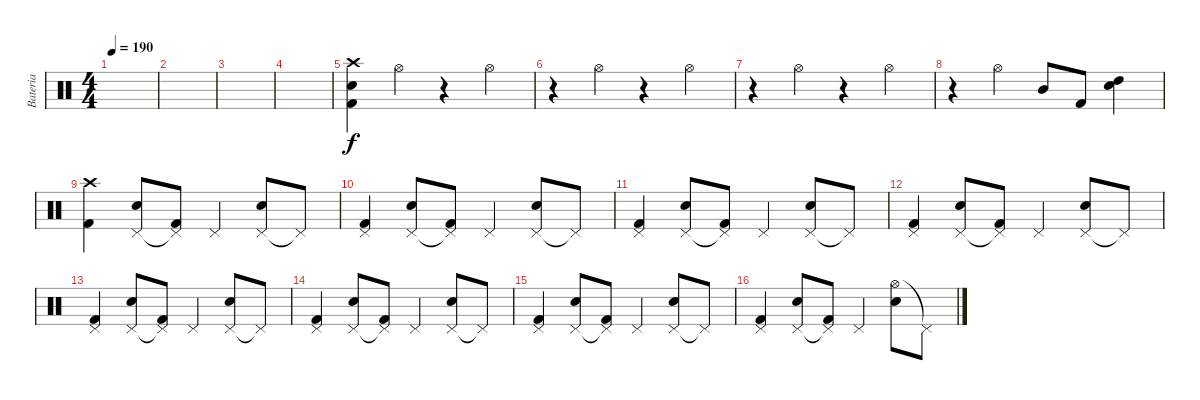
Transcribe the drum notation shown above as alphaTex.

\track ("Bateria" "Bateria") {instrument percussion}
\staff {score}
\articulation defaults
\ts (4 4)
\tempo 190
\clef neutral
\ks c
|
|
|
|
("Crash high (hit)" "Electric Snare (hit)" "Kick (hit) 2").4 "Hi-Hat (open)".4 r.4 "Hi-Hat (open)".4 |
r.4 "Hi-Hat (open)".4 r.4 "Hi-Hat (open)".4 |
r.4 "Hi-Hat (open)".4 r.4 "Hi-Hat (open)".4 |
r.4 "Hi-Hat (open)".4 "Mid Tom (hit)".8 "Kick (hit) 2".8 ("High Tom (hit)" "Snare (hit) 2").4 |
("Crash high (hit)" "Kick (hit) 2").4 ("Pedal Hi-Hat (hit)" "Snare (hit) 2").8 ("Pedal Hi-Hat (hit)"{t} "Kick (hit) 2").8 "Pedal Hi-Hat (hit)".4 ("Pedal Hi-Hat (hit)" "Snare (hit) 2").8 "Pedal Hi-Hat (hit)"{t}.8 |
("Pedal Hi-Hat (hit)" "Kick (hit) 2").4 ("Pedal Hi-Hat (hit)" "Snare (hit) 2").8 ("Pedal Hi-Hat (hit)"{t} "Kick (hit) 2").8 "Pedal Hi-Hat (hit)".4 ("Pedal Hi-Hat (hit)" "Snare (hit) 2").8 "Pedal Hi-Hat (hit)"{t}.8 |
("Pedal Hi-Hat (hit)" "Kick (hit) 2").4 ("Pedal Hi-Hat (hit)" "Snare (hit) 2").8 ("Pedal Hi-Hat (hit)"{t} "Kick (hit) 2").8 "Pedal Hi-Hat (hit)".4 ("Pedal Hi-Hat (hit)" "Snare (hit) 2").8 "Pedal Hi-Hat (hit)"{t}.8 |
("Pedal Hi-Hat (hit)" "Kick (hit) 2").4 ("Pedal Hi-Hat (hit)" "Snare (hit) 2").8 ("Pedal Hi-Hat (hit)"{t} "Kick (hit) 2").8 "Pedal Hi-Hat (hit)".4 ("Pedal Hi-Hat (hit)" "Snare (hit) 2").8 "Pedal Hi-Hat (hit)"{t}.8 |
("Pedal Hi-Hat (hit)" "Kick (hit) 2").4 ("Pedal Hi-Hat (hit)" "Snare (hit) 2").8 ("Pedal Hi-Hat (hit)"{t} "Kick (hit) 2").8 "Pedal Hi-Hat (hit)".4 ("Pedal Hi-Hat (hit)" "Snare (hit) 2").8 "Pedal Hi-Hat (hit)"{t}.8 |
("Pedal Hi-Hat (hit)" "Kick (hit) 2").4 ("Pedal Hi-Hat (hit)" "Snare (hit) 2").8 ("Pedal Hi-Hat (hit)"{t} "Kick (hit) 2").8 "Pedal Hi-Hat (hit)".4 ("Pedal Hi-Hat (hit)" "Snare (hit) 2").8 "Pedal Hi-Hat (hit)"{t}.8 |
("Pedal Hi-Hat (hit)" "Kick (hit) 2").4 ("Pedal Hi-Hat (hit)" "Snare (hit) 2").8 ("Pedal Hi-Hat (hit)"{t} "Kick (hit) 2").8 "Pedal Hi-Hat (hit)".4 ("Pedal Hi-Hat (hit)" "Snare (hit) 2").8 "Pedal Hi-Hat (hit)"{t}.8 |
("Pedal Hi-Hat (hit)" "Kick (hit) 2").4 ("Pedal Hi-Hat (hit)" "Snare (hit) 2").8 ("Pedal Hi-Hat (hit)"{t} "Kick (hit) 2").8 "Pedal Hi-Hat (hit)".4 ("Hi-Hat (open)" "Snare (hit) 2").8 "Pedal Hi-Hat (hit)"{t}.8
